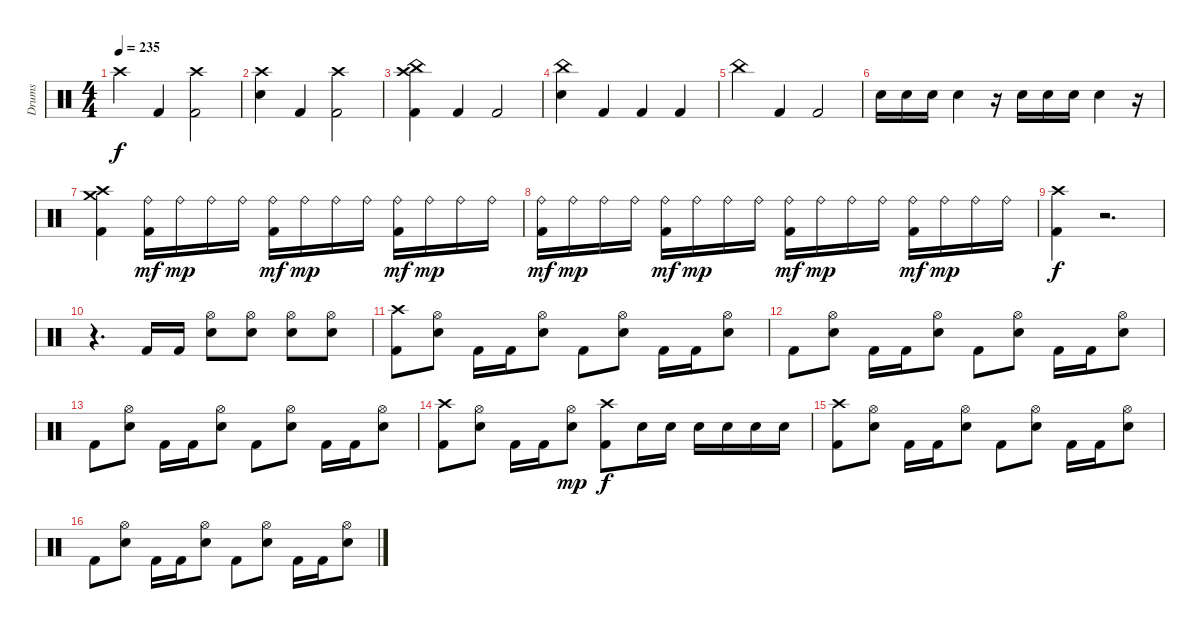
\track ("Drums" "Drums") {instrument percussion}
\staff {score}
\articulation defaults
\ts (4 4)
\tempo 235
\clef neutral
\ks c "Crash high (hit)".4{dy f} "Kick (hit) 2".4
("Crash high (hit)" "Kick (hit) 2").2 |
("Crash high (hit)" "Electric Snare (hit)").4 "Kick (hit) 2".4 ("Crash high (hit)" "Kick (hit) 2").2 |
("China (hit)" "Crash high (hit)" "Kick (hit) 2").4 "Kick (hit) 2".4 "Kick (hit) 2".2 |
("China (hit)" "Electric Snare (hit)").4 "Kick (hit) 2".4 "Kick (hit) 2".4 "Kick (hit) 2".4 |
"China (hit)".4 "Kick (hit) 2".4 "Kick (hit) 2".2 |
"Electric Snare (hit)".16 "Electric Snare (hit)".16 "Electric Snare (hit)".16 "Electric Snare (hit)".4 r.16 "Electric Snare (hit)".16 "Electric Snare (hit)".16 "Electric Snare (hit)".16 "Electric Snare (hit)".4 r.16 |
("Crash high (hit)" "Crash medium (hit)" "Kick (hit) 2").4 ("Ride (bell)" "Kick (hit) 2").16{dy mf} "Ride (bell)".16{dy mp} "Ride (bell)".16 "Ride (bell)".16 ("Ride (bell)" "Kick (hit) 2").16{dy mf} "Ride (bell)".16{dy mp} "Ride (bell)".16 "Ride (bell)".16 ("Ride (bell)" "Kick (hit) 2").16{dy mf} "Ride (bell)".16{dy mp} "Ride (bell)".16 "Ride (bell)".16 |
("Ride (bell)" "Kick (hit) 2").16{dy mf} "Ride (bell)".16{dy mp} "Ride (bell)".16 "Ride (bell)".16 ("Ride (bell)" "Kick (hit) 2").16{dy mf} "Ride (bell)".16{dy mp} "Ride (bell)".16 "Ride (bell)".16 ("Ride (bell)" "Kick (hit) 2").16{dy mf} "Ride (bell)".16{dy mp} "Ride (bell)".16 "Ride (bell)".16 ("Ride (bell)" "Kick (hit) 2").16{dy mf} "Ride (bell)".16{dy mp} "Ride (bell)".16 "Ride (bell)".16 |
("Crash high (hit)" "Kick (hit) 2").4{dy f} r.2{d volume 0} |
r.4{d} "Kick (hit) 2".16{volume 14} "Kick (hit) 2".16 ("Hi-Hat (open)" "Electric Snare (hit)").8 ("Hi-Hat (open)" "Electric Snare (hit)").8 ("Hi-Hat (open)" "Electric Snare (hit)").8 ("Hi-Hat (open)" "Electric Snare (hit)").8 |
("Crash high (hit)" "Kick (hit) 2").8 ("Hi-Hat (open)" "Electric Snare (hit)").8 "Kick (hit) 2".16 "Kick (hit) 2".16 ("Hi-Hat (open)" "Electric Snare (hit)").8 "Kick (hit) 2".8 ("Hi-Hat (open)" "Electric Snare (hit)").8 "Kick (hit) 2".16 "Kick (hit) 2".16 ("Hi-Hat (open)" "Electric Snare (hit)").8 |
"Kick (hit) 2".8 ("Hi-Hat (open)" "Electric Snare (hit)").8 "Kick (hit) 2".16 "Kick (hit) 2".16 ("Hi-Hat (open)" "Electric Snare (hit)").8 "Kick (hit) 2".8 ("Hi-Hat (open)" "Electric Snare (hit)").8 "Kick (hit) 2".16 "Kick (hit) 2".16 ("Hi-Hat (open)" "Electric Snare (hit)").8 |
"Kick (hit) 2".8 ("Hi-Hat (open)" "Electric Snare (hit)").8 "Kick (hit) 2".16 "Kick (hit) 2".16 ("Hi-Hat (open)" "Electric Snare (hit)").8 "Kick (hit) 2".8 ("Hi-Hat (open)" "Electric Snare (hit)").8 "Kick (hit) 2".16 "Kick (hit) 2".16 ("Hi-Hat (open)" "Electric Snare (hit)").8 |
("Crash high (hit)" "Kick (hit) 2").8 ("Hi-Hat (open)" "Electric Snare (hit)").8 "Kick (hit) 2".16 "Kick (hit) 2".16 ("Hi-Hat (open)" "Electric Snare (hit)").8{dy mp} ("Crash high (hit)" "Kick (hit) 2").8{dy f} "Electric Snare (hit)".16 "Electric Snare (hit)".16 "Electric Snare (hit)".16 "Electric Snare (hit)".16 "Electric Snare (hit)".16 "Electric Snare (hit)".16 |
("Crash high (hit)" "Kick (hit) 2").8 ("Hi-Hat (open)" "Electric Snare (hit)").8 "Kick (hit) 2".16 "Kick (hit) 2".16 ("Hi-Hat (open)" "Electric Snare (hit)").8 "Kick (hit) 2".8 ("Hi-Hat (open)" "Electric Snare (hit)").8 "Kick (hit) 2".16 "Kick (hit) 2".16 ("Hi-Hat (open)" "Electric Snare (hit)").8 |
"Kick (hit) 2".8 ("Hi-Hat (open)" "Electric Snare (hit)").8 "Kick (hit) 2".16 "Kick (hit) 2".16 ("Hi-Hat (open)" "Electric Snare (hit)").8 "Kick (hit) 2".8 ("Hi-Hat (open)" "Electric Snare (hit)").8 "Kick (hit) 2".16 "Kick (hit) 2".16 ("Hi-Hat (open)" "Electric Snare (hit)").8
